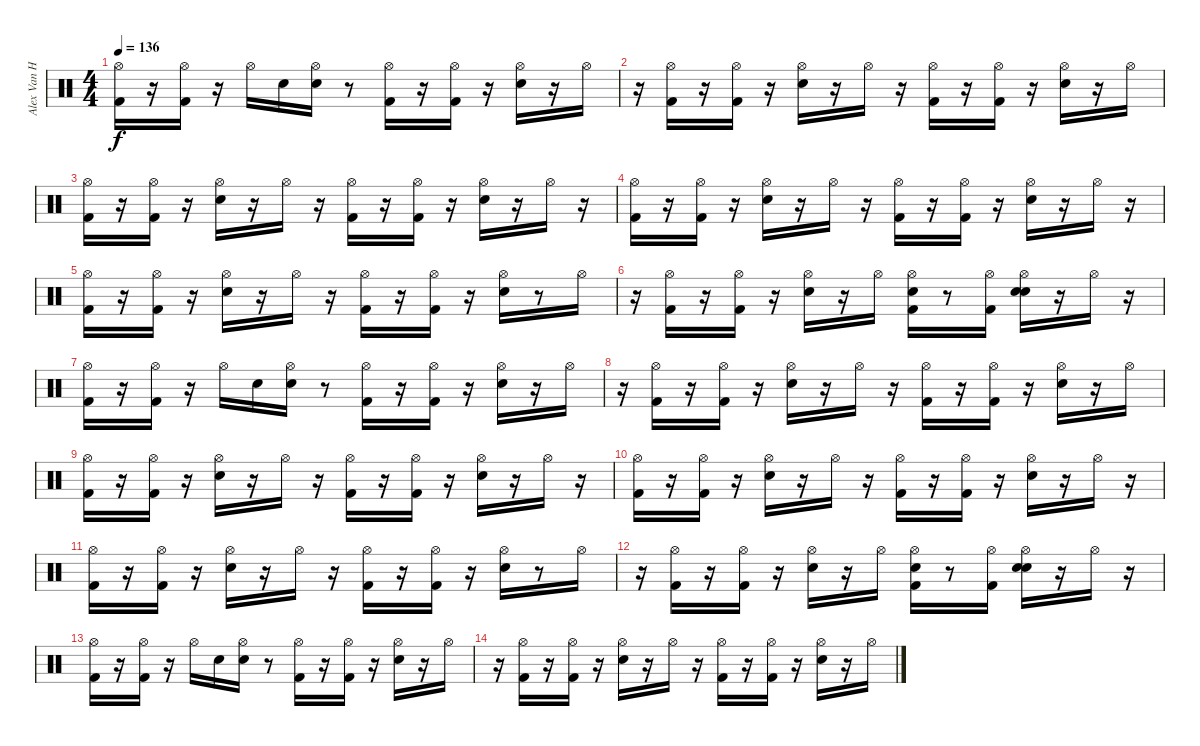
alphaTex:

\track ("Alex Van Halen (Drums)" "Alex Van H") {instrument percussion}
\staff {score}
\articulation defaults
\ts (4 4)
\tempo 136
\clef neutral
\ks c
("Hi-Hat (open)" "Kick (hit) 2").16{dy f} r.16 ("Hi-Hat (open)" "Kick (hit) 2").16 r.16 "Hi-Hat (open)".16 "Snare (hit) 2".16 ("Snare (hit)" "Hi-Hat (open)").16 r.8 ("Hi-Hat (open)" "Kick (hit) 2").16 r.16 ("Hi-Hat (open)" "Kick (hit) 2").16 r.16 ("Hi-Hat (open)" "Snare (hit) 2").16 r.16 "Hi-Hat (open)".16 |
r.16 ("Hi-Hat (open)" "Kick (hit) 2").16 r.16 ("Hi-Hat (open)" "Kick (hit) 2").16 r.16 ("Hi-Hat (open)" "Snare (hit) 2").16 r.16 "Hi-Hat (open)".16 r.16 ("Hi-Hat (open)" "Kick (hit) 2").16 r.16 ("Hi-Hat (open)" "Kick (hit) 2").16 r.16 ("Hi-Hat (open)" "Snare (hit) 2").16 r.16 "Hi-Hat (open)".16 |
("Hi-Hat (open)" "Kick (hit) 2").16 r.16 ("Hi-Hat (open)" "Kick (hit) 2").16 r.16 ("Hi-Hat (open)" "Snare (hit) 2").16 r.16 "Hi-Hat (open)".16 r.16 ("Hi-Hat (open)" "Kick (hit) 2").16 r.16 ("Hi-Hat (open)" "Kick (hit) 2").16 r.16 ("Hi-Hat (open)" "Snare (hit) 2").16 r.16 "Hi-Hat (open)".16 r.16 |
("Hi-Hat (open)" "Kick (hit) 2").16 r.16 ("Hi-Hat (open)" "Kick (hit) 2").16 r.16 ("Hi-Hat (open)" "Snare (hit) 2").16 r.16 "Hi-Hat (open)".16 r.16 ("Hi-Hat (open)" "Kick (hit) 2").16 r.16 ("Hi-Hat (open)" "Kick (hit) 2").16 r.16 ("Hi-Hat (open)" "Snare (hit) 2").16 r.16 "Hi-Hat (open)".16 r.16 |
("Hi-Hat (open)" "Kick (hit) 2").16 r.16 ("Hi-Hat (open)" "Kick (hit) 2").16 r.16 ("Hi-Hat (open)" "Snare (hit) 2").16 r.16 "Hi-Hat (open)".16 r.16 ("Hi-Hat (open)" "Kick (hit) 2").16 r.16 ("Hi-Hat (open)" "Kick (hit) 2").16 r.16 ("Hi-Hat (open)" "Snare (hit) 2").16 r.8 "Hi-Hat (open)".16 |
r.16 ("Hi-Hat (open)" "Kick (hit) 2").16 r.16 ("Hi-Hat (open)" "Kick (hit) 2").16 r.16 ("Hi-Hat (open)" "Snare (hit) 2").16 r.16 "Hi-Hat (open)".16 ("Snare (hit)" "Hi-Hat (open)" "Kick (hit) 2").16 r.8 ("Hi-Hat (open)" "Kick (hit) 2").16 ("Snare (hit)" "Hi-Hat (open)" "Snare (hit) 2").16 r.16 "Hi-Hat (open)".16 r.16 |
("Hi-Hat (open)" "Kick (hit) 2").16 r.16 ("Hi-Hat (open)" "Kick (hit) 2").16 r.16 "Hi-Hat (open)".16 "Snare (hit) 2".16 ("Snare (hit)" "Hi-Hat (open)").16 r.8 ("Hi-Hat (open)" "Kick (hit) 2").16 r.16 ("Hi-Hat (open)" "Kick (hit) 2").16 r.16 ("Hi-Hat (open)" "Snare (hit) 2").16 r.16 "Hi-Hat (open)".16 |
r.16 ("Hi-Hat (open)" "Kick (hit) 2").16 r.16 ("Hi-Hat (open)" "Kick (hit) 2").16 r.16 ("Hi-Hat (open)" "Snare (hit) 2").16 r.16 "Hi-Hat (open)".16 r.16 ("Hi-Hat (open)" "Kick (hit) 2").16 r.16 ("Hi-Hat (open)" "Kick (hit) 2").16 r.16 ("Hi-Hat (open)" "Snare (hit) 2").16 r.16 "Hi-Hat (open)".16 |
("Hi-Hat (open)" "Kick (hit) 2").16 r.16 ("Hi-Hat (open)" "Kick (hit) 2").16 r.16 ("Hi-Hat (open)" "Snare (hit) 2").16 r.16 "Hi-Hat (open)".16 r.16 ("Hi-Hat (open)" "Kick (hit) 2").16 r.16 ("Hi-Hat (open)" "Kick (hit) 2").16 r.16 ("Hi-Hat (open)" "Snare (hit) 2").16 r.16 "Hi-Hat (open)".16 r.16 |
("Hi-Hat (open)" "Kick (hit) 2").16 r.16 ("Hi-Hat (open)" "Kick (hit) 2").16 r.16 ("Hi-Hat (open)" "Snare (hit) 2").16 r.16 "Hi-Hat (open)".16 r.16 ("Hi-Hat (open)" "Kick (hit) 2").16 r.16 ("Hi-Hat (open)" "Kick (hit) 2").16 r.16 ("Hi-Hat (open)" "Snare (hit) 2").16 r.16 "Hi-Hat (open)".16 r.16 |
("Hi-Hat (open)" "Kick (hit) 2").16 r.16 ("Hi-Hat (open)" "Kick (hit) 2").16 r.16 ("Hi-Hat (open)" "Snare (hit) 2").16 r.16 "Hi-Hat (open)".16 r.16 ("Hi-Hat (open)" "Kick (hit) 2").16 r.16 ("Hi-Hat (open)" "Kick (hit) 2").16 r.16 ("Hi-Hat (open)" "Snare (hit) 2").16 r.8 "Hi-Hat (open)".16 |
r.16 ("Hi-Hat (open)" "Kick (hit) 2").16 r.16 ("Hi-Hat (open)" "Kick (hit) 2").16 r.16 ("Hi-Hat (open)" "Snare (hit) 2").16 r.16 "Hi-Hat (open)".16 ("Snare (hit)" "Hi-Hat (open)" "Kick (hit) 2").16 r.8 ("Hi-Hat (open)" "Kick (hit) 2").16 ("Snare (hit)" "Hi-Hat (open)" "Snare (hit) 2").16 r.16 "Hi-Hat (open)".16 r.16 |
("Hi-Hat (open)" "Kick (hit) 2").16 r.16 ("Hi-Hat (open)" "Kick (hit) 2").16 r.16 "Hi-Hat (open)".16 "Snare (hit) 2".16 ("Snare (hit)" "Hi-Hat (open)").16 r.8 ("Hi-Hat (open)" "Kick (hit) 2").16 r.16 ("Hi-Hat (open)" "Kick (hit) 2").16 r.16 ("Hi-Hat (open)" "Snare (hit) 2").16 r.16 "Hi-Hat (open)".16 |
r.16 ("Hi-Hat (open)" "Kick (hit) 2").16 r.16 ("Hi-Hat (open)" "Kick (hit) 2").16 r.16 ("Hi-Hat (open)" "Snare (hit) 2").16 r.16 "Hi-Hat (open)".16 r.16 ("Hi-Hat (open)" "Kick (hit) 2").16 r.16 ("Hi-Hat (open)" "Kick (hit) 2").16 r.16 ("Hi-Hat (open)" "Snare (hit) 2").16 r.16 "Hi-Hat (open)".16
